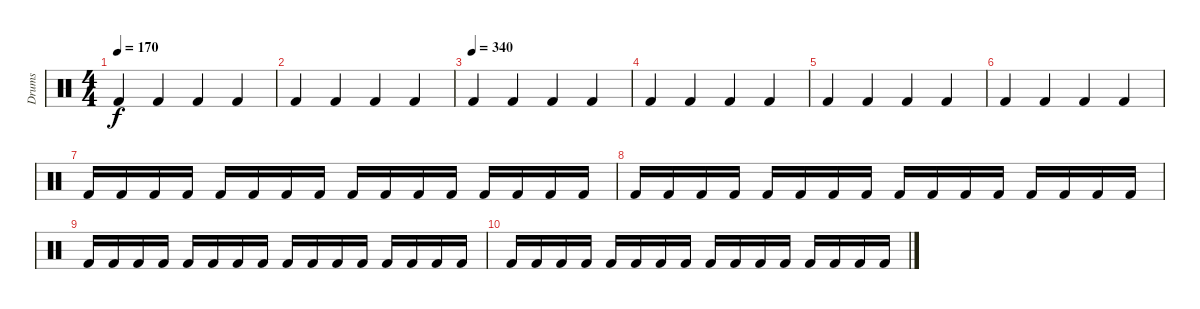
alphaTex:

\track ("Drums" "Drums") {instrument percussion}
\staff {score}
\articulation defaults
\ts (4 4)
\tempo 170
\clef neutral
\ks c "Kick (hit) 2".4{dy f} "Kick (hit) 2".4 "Kick (hit) 2".4 "Kick (hit) 2".4
|
"Kick (hit) 2".4 "Kick (hit) 2".4 "Kick (hit) 2".4 "Kick (hit) 2".4 |
\tempo (340)
"Kick (hit) 2".4 "Kick (hit) 2".4 "Kick (hit) 2".4 "Kick (hit) 2".4 |
"Kick (hit) 2".4 "Kick (hit) 2".4 "Kick (hit) 2".4 "Kick (hit) 2".4 |
"Kick (hit) 2".4 "Kick (hit) 2".4 "Kick (hit) 2".4 "Kick (hit) 2".4 |
"Kick (hit) 2".4 "Kick (hit) 2".4 "Kick (hit) 2".4 "Kick (hit) 2".4 |
"Kick (hit) 2".16 "Kick (hit) 2".16 "Kick (hit) 2".16 "Kick (hit) 2".16 "Kick (hit) 2".16 "Kick (hit) 2".16 "Kick (hit) 2".16 "Kick (hit) 2".16 "Kick (hit) 2".16 "Kick (hit) 2".16 "Kick (hit) 2".16 "Kick (hit) 2".16 "Kick (hit) 2".16 "Kick (hit) 2".16 "Kick (hit) 2".16 "Kick (hit) 2".16 |
"Kick (hit) 2".16 "Kick (hit) 2".16 "Kick (hit) 2".16 "Kick (hit) 2".16 "Kick (hit) 2".16 "Kick (hit) 2".16 "Kick (hit) 2".16 "Kick (hit) 2".16 "Kick (hit) 2".16 "Kick (hit) 2".16 "Kick (hit) 2".16 "Kick (hit) 2".16 "Kick (hit) 2".16 "Kick (hit) 2".16 "Kick (hit) 2".16 "Kick (hit) 2".16 |
"Kick (hit) 2".16 "Kick (hit) 2".16 "Kick (hit) 2".16 "Kick (hit) 2".16 "Kick (hit) 2".16 "Kick (hit) 2".16 "Kick (hit) 2".16 "Kick (hit) 2".16 "Kick (hit) 2".16 "Kick (hit) 2".16 "Kick (hit) 2".16 "Kick (hit) 2".16 "Kick (hit) 2".16 "Kick (hit) 2".16 "Kick (hit) 2".16 "Kick (hit) 2".16 |
"Kick (hit) 2".16 "Kick (hit) 2".16 "Kick (hit) 2".16 "Kick (hit) 2".16 "Kick (hit) 2".16 "Kick (hit) 2".16 "Kick (hit) 2".16 "Kick (hit) 2".16 "Kick (hit) 2".16 "Kick (hit) 2".16 "Kick (hit) 2".16 "Kick (hit) 2".16 "Kick (hit) 2".16 "Kick (hit) 2".16 "Kick (hit) 2".16 "Kick (hit) 2".16
